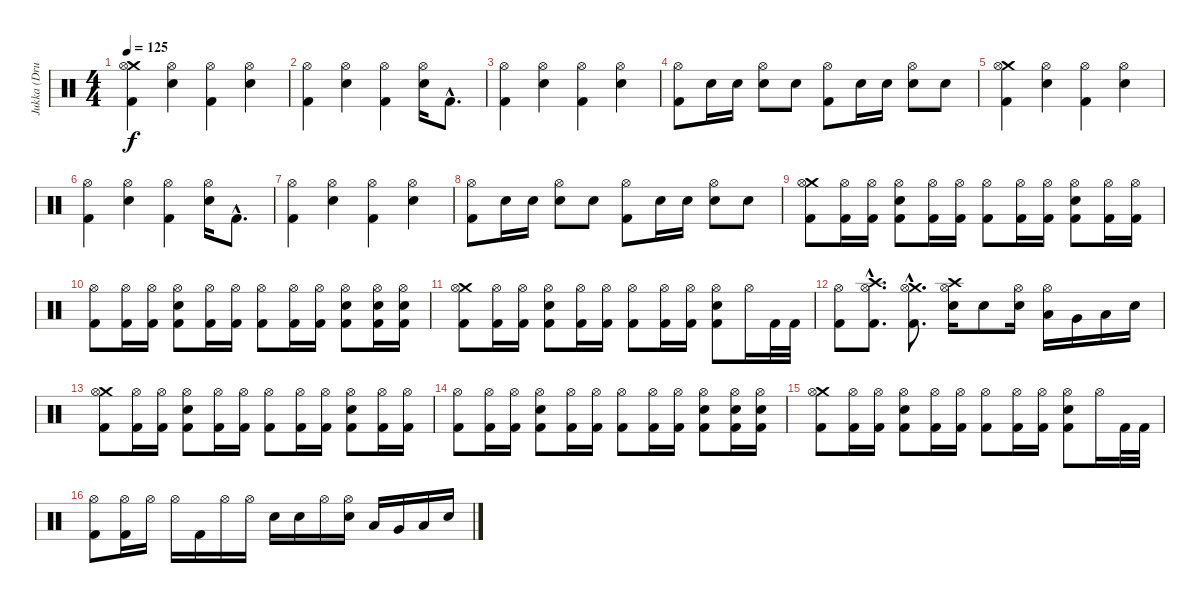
\track ("Jukka (Drums)" "Jukka (Dru") {instrument percussion}
\staff {score}
\articulation defaults
\ts (4 4)
\tempo 125
\clef neutral
\ks c
("Crash medium (hit)" "Hi-Hat (open)" "Kick (hit) 2").4{dy f} ("Hi-Hat (open)" "Electric Snare (hit)").4 ("Hi-Hat (open)" "Kick (hit) 2").4 ("Hi-Hat (open)" "Electric Snare (hit)").4 |
("Hi-Hat (open)" "Kick (hit) 2").4 ("Hi-Hat (open)" "Electric Snare (hit)").4 ("Hi-Hat (open)" "Kick (hit) 2").4 ("Hi-Hat (open)" "Electric Snare (hit)").16 "Kick (hit) 2"{hac}.8{d} |
("Hi-Hat (open)" "Kick (hit) 2").4 ("Hi-Hat (open)" "Electric Snare (hit)").4 ("Hi-Hat (open)" "Kick (hit) 2").4 ("Hi-Hat (open)" "Electric Snare (hit)").4 |
("Hi-Hat (open)" "Kick (hit) 2").8 "Electric Snare (hit)".16 "Electric Snare (hit)".16 ("Hi-Hat (open)" "Electric Snare (hit)").8 "Electric Snare (hit)".8 ("Hi-Hat (open)" "Kick (hit) 2").8 "Electric Snare (hit)".16 "Electric Snare (hit)".16 ("Hi-Hat (open)" "Electric Snare (hit)").8 "Electric Snare (hit)".8 |
("Crash medium (hit)" "Hi-Hat (open)" "Kick (hit) 2").4 ("Hi-Hat (open)" "Electric Snare (hit)").4 ("Hi-Hat (open)" "Kick (hit) 2").4 ("Hi-Hat (open)" "Electric Snare (hit)").4 |
("Hi-Hat (open)" "Kick (hit) 2").4 ("Hi-Hat (open)" "Electric Snare (hit)").4 ("Hi-Hat (open)" "Kick (hit) 2").4 ("Hi-Hat (open)" "Electric Snare (hit)").16 "Kick (hit) 2"{hac}.8{d} |
("Hi-Hat (open)" "Kick (hit) 2").4 ("Hi-Hat (open)" "Electric Snare (hit)").4 ("Hi-Hat (open)" "Kick (hit) 2").4 ("Hi-Hat (open)" "Electric Snare (hit)").4 |
("Hi-Hat (open)" "Kick (hit) 2").8 "Electric Snare (hit)".16 "Electric Snare (hit)".16 ("Hi-Hat (open)" "Electric Snare (hit)").8 "Electric Snare (hit)".8 ("Hi-Hat (open)" "Kick (hit) 2").8 "Electric Snare (hit)".16 "Electric Snare (hit)".16 ("Hi-Hat (open)" "Electric Snare (hit)").8 "Electric Snare (hit)".8 |
("Crash medium (hit)" "Hi-Hat (open)" "Kick (hit) 2").8 ("Hi-Hat (open)" "Kick (hit) 2").16 ("Hi-Hat (open)" "Kick (hit) 2").16 ("Hi-Hat (open)" "Electric Snare (hit)" "Kick (hit) 2").8 ("Hi-Hat (open)" "Kick (hit) 2").16 ("Hi-Hat (open)" "Kick (hit) 2").16 ("Hi-Hat (open)" "Kick (hit) 2").8 ("Hi-Hat (open)" "Kick (hit) 2").16 ("Hi-Hat (open)" "Kick (hit) 2").16 ("Hi-Hat (open)" "Electric Snare (hit)" "Kick (hit) 2").8 ("Hi-Hat (open)" "Kick (hit) 2").16 ("Hi-Hat (open)" "Kick (hit) 2").16 |
("Hi-Hat (open)" "Kick (hit) 2").8 ("Hi-Hat (open)" "Kick (hit) 2").16 ("Hi-Hat (open)" "Kick (hit) 2").16 ("Hi-Hat (open)" "Electric Snare (hit)" "Kick (hit) 2").8 ("Hi-Hat (open)" "Kick (hit) 2").16 ("Hi-Hat (open)" "Kick (hit) 2").16 ("Hi-Hat (open)" "Kick (hit) 2").8 ("Hi-Hat (open)" "Kick (hit) 2").16 ("Hi-Hat (open)" "Kick (hit) 2").16 ("Hi-Hat (open)" "Electric Snare (hit)" "Kick (hit) 2").8 ("Hi-Hat (open)" "Electric Snare (hit)" "Kick (hit) 2").16 ("Hi-Hat (open)" "Electric Snare (hit)" "Kick (hit) 2").16 |
("Crash medium (hit)" "Hi-Hat (open)" "Kick (hit) 2").8 ("Hi-Hat (open)" "Kick (hit) 2").16 ("Hi-Hat (open)" "Kick (hit) 2").16 ("Hi-Hat (open)" "Electric Snare (hit)" "Kick (hit) 2").8 ("Hi-Hat (open)" "Kick (hit) 2").16 ("Hi-Hat (open)" "Kick (hit) 2").16 ("Hi-Hat (open)" "Kick (hit) 2").8 ("Hi-Hat (open)" "Kick (hit) 2").16 ("Hi-Hat (open)" "Kick (hit) 2").16 ("Hi-Hat (open)" "Electric Snare (hit)" "Kick (hit) 2").8 "Hi-Hat (open)".16 "Kick (hit) 2".32 "Kick (hit) 2".32 |
("Hi-Hat (open)" "Kick (hit) 2").8 ("Crash high (hit)"{hac} "Hi-Hat (open)"{hac} "Kick (hit) 2"{hac}).8{d} ("Crash medium (hit)"{hac} "Hi-Hat (open)"{hac} "Kick (hit) 2"{hac}).8{d} ("Crash high (hit)" "Hi-Hat (open)" "Electric Snare (hit)").16 "Electric Snare (hit)".8 ("Hi-Hat (open)" "Electric Snare (hit)").16 ("Hi-Hat (open)" "Low Tom (hit)").16 "Very Low Tom (hit)".16 "Low Floor Tom (hit)".16 "Electric Snare (hit)".16 |
("Crash medium (hit)" "Hi-Hat (open)" "Kick (hit) 2").8 ("Hi-Hat (open)" "Kick (hit) 2").16 ("Hi-Hat (open)" "Kick (hit) 2").16 ("Hi-Hat (open)" "Electric Snare (hit)" "Kick (hit) 2").8 ("Hi-Hat (open)" "Kick (hit) 2").16 ("Hi-Hat (open)" "Kick (hit) 2").16 ("Hi-Hat (open)" "Kick (hit) 2").8 ("Hi-Hat (open)" "Kick (hit) 2").16 ("Hi-Hat (open)" "Kick (hit) 2").16 ("Hi-Hat (open)" "Electric Snare (hit)" "Kick (hit) 2").8 ("Hi-Hat (open)" "Kick (hit) 2").16 ("Hi-Hat (open)" "Kick (hit) 2").16 |
("Hi-Hat (open)" "Kick (hit) 2").8 ("Hi-Hat (open)" "Kick (hit) 2").16 ("Hi-Hat (open)" "Kick (hit) 2").16 ("Hi-Hat (open)" "Electric Snare (hit)" "Kick (hit) 2").8 ("Hi-Hat (open)" "Kick (hit) 2").16 ("Hi-Hat (open)" "Kick (hit) 2").16 ("Hi-Hat (open)" "Kick (hit) 2").8 ("Hi-Hat (open)" "Kick (hit) 2").16 ("Hi-Hat (open)" "Kick (hit) 2").16 ("Hi-Hat (open)" "Electric Snare (hit)" "Kick (hit) 2").8 ("Hi-Hat (open)" "Electric Snare (hit)" "Kick (hit) 2").16 ("Hi-Hat (open)" "Electric Snare (hit)" "Kick (hit) 2").16 |
("Crash medium (hit)" "Hi-Hat (open)" "Kick (hit) 2").8 ("Hi-Hat (open)" "Kick (hit) 2").16 ("Hi-Hat (open)" "Kick (hit) 2").16 ("Hi-Hat (open)" "Electric Snare (hit)" "Kick (hit) 2").8 ("Hi-Hat (open)" "Kick (hit) 2").16 ("Hi-Hat (open)" "Kick (hit) 2").16 ("Hi-Hat (open)" "Kick (hit) 2").8 ("Hi-Hat (open)" "Kick (hit) 2").16 ("Hi-Hat (open)" "Kick (hit) 2").16 ("Hi-Hat (open)" "Electric Snare (hit)" "Kick (hit) 2").8 "Hi-Hat (open)".16 "Kick (hit) 2".32 "Kick (hit) 2".32 |
("Hi-Hat (open)" "Kick (hit) 2").8 ("Hi-Hat (open)" "Kick (hit) 2").16 "Hi-Hat (open)".16 "Hi-Hat (open)".16 "Kick (hit) 2".16 "Hi-Hat (open)".16 "Hi-Hat (open)".16 "Electric Snare (hit)".16 "Electric Snare (hit)".16 "Hi-Hat (open)".16 ("Hi-Hat (open)" "Electric Snare (hit)").16 "Low Tom (hit)".16 "Very Low Tom (hit)".16 "Low Floor Tom (hit)".16 "Electric Snare (hit)".16
